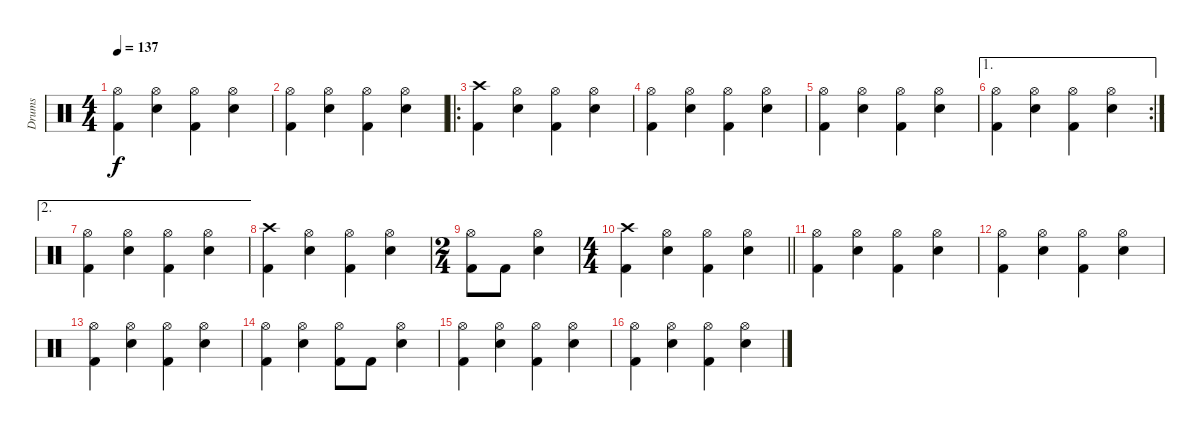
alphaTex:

\track ("Drums" "Drums") {instrument percussion}
\staff {score}
\articulation defaults
\ts (4 4)
\tempo 137
\clef neutral
\ks c
("Hi-Hat (open)" "Kick (hit) 2").4{dy f} ("Hi-Hat (open)" "Snare (hit) 2").4 ("Hi-Hat (open)" "Kick (hit) 2").4 ("Hi-Hat (open)" "Snare (hit) 2").4 |
("Hi-Hat (open)" "Kick (hit) 2").4 ("Hi-Hat (open)" "Snare (hit) 2").4 ("Hi-Hat (open)" "Kick (hit) 2").4 ("Hi-Hat (open)" "Snare (hit) 2").4 |
\ro
("Crash high (hit)" "Kick (hit) 2").4 ("Hi-Hat (open)" "Snare (hit) 2").4 ("Hi-Hat (open)" "Kick (hit) 2").4 ("Hi-Hat (open)" "Snare (hit) 2").4 |
("Hi-Hat (open)" "Kick (hit) 2").4 ("Hi-Hat (open)" "Snare (hit) 2").4 ("Hi-Hat (open)" "Kick (hit) 2").4 ("Hi-Hat (open)" "Snare (hit) 2").4 |
("Hi-Hat (open)" "Kick (hit) 2").4 ("Hi-Hat (open)" "Snare (hit) 2").4 ("Hi-Hat (open)" "Kick (hit) 2").4 ("Hi-Hat (open)" "Snare (hit) 2").4 |
\ae 1
\rc 2
("Hi-Hat (open)" "Kick (hit) 2").4 ("Hi-Hat (open)" "Snare (hit) 2").4 ("Hi-Hat (open)" "Kick (hit) 2").4 ("Hi-Hat (open)" "Snare (hit) 2").4 |
\ae 2
("Hi-Hat (open)" "Kick (hit) 2").4 ("Hi-Hat (open)" "Snare (hit) 2").4 ("Hi-Hat (open)" "Kick (hit) 2").4 ("Hi-Hat (open)" "Snare (hit) 2").4 |
("Crash high (hit)" "Kick (hit) 2").4 ("Hi-Hat (open)" "Snare (hit) 2").4 ("Hi-Hat (open)" "Kick (hit) 2").4 ("Hi-Hat (open)" "Snare (hit) 2").4 |
\ts (2 4)
("Hi-Hat (open)" "Kick (hit) 2").8 "Kick (hit) 2".8 ("Hi-Hat (open)" "Snare (hit) 2").4 |
\ts (4 4)
\barLineRight lightlight
("Crash high (hit)" "Kick (hit) 2").4 ("Hi-Hat (open)" "Snare (hit) 2").4 ("Hi-Hat (open)" "Kick (hit) 2").4 ("Hi-Hat (open)" "Snare (hit) 2").4 |
("Hi-Hat (open)" "Kick (hit) 2").4 ("Hi-Hat (open)" "Snare (hit) 2").4 ("Hi-Hat (open)" "Kick (hit) 2").4 ("Hi-Hat (open)" "Snare (hit) 2").4 |
("Hi-Hat (open)" "Kick (hit) 2").4 ("Hi-Hat (open)" "Snare (hit) 2").4 ("Hi-Hat (open)" "Kick (hit) 2").4 ("Hi-Hat (open)" "Snare (hit) 2").4 |
("Hi-Hat (open)" "Kick (hit) 2").4 ("Hi-Hat (open)" "Snare (hit) 2").4 ("Hi-Hat (open)" "Kick (hit) 2").4 ("Hi-Hat (open)" "Snare (hit) 2").4 |
("Hi-Hat (open)" "Kick (hit) 2").4 ("Hi-Hat (open)" "Snare (hit) 2").4 ("Hi-Hat (open)" "Kick (hit) 2").8 "Kick (hit) 2".8 ("Hi-Hat (open)" "Snare (hit) 2").4 |
("Hi-Hat (open)" "Kick (hit) 2").4 ("Hi-Hat (open)" "Snare (hit) 2").4 ("Hi-Hat (open)" "Kick (hit) 2").4 ("Hi-Hat (open)" "Snare (hit) 2").4 |
("Hi-Hat (open)" "Kick (hit) 2").4 ("Hi-Hat (open)" "Snare (hit) 2").4 ("Hi-Hat (open)" "Kick (hit) 2").4 ("Hi-Hat (open)" "Snare (hit) 2").4
